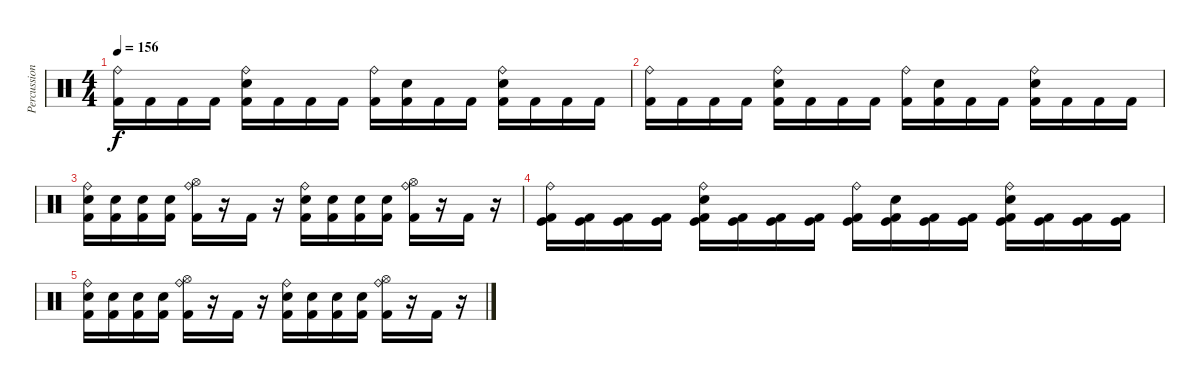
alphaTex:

\track ("Percussion" "Percussion") {instrument percussion}
\staff {score}
\articulation defaults
\ts (4 4)
\tempo 156
\clef neutral
\ks c
("Ride (bell)" "Kick (hit) 2").16{dy f} "Kick (hit) 2".16 "Kick (hit) 2".16 "Kick (hit) 2".16 ("Electric Snare (hit)" "Ride (bell)" "Kick (hit) 2").16 "Kick (hit) 2".16 "Kick (hit) 2".16 "Kick (hit) 2".16 ("Ride (bell)" "Kick (hit) 2").16 ("Electric Snare (hit)" "Kick (hit) 2").16 "Kick (hit) 2".16 "Kick (hit) 2".16 ("Electric Snare (hit)" "Ride (bell)" "Kick (hit) 2").16 "Kick (hit) 2".16 "Kick (hit) 2".16 "Kick (hit) 2".16 |
("Ride (bell)" "Kick (hit) 2").16 "Kick (hit) 2".16 "Kick (hit) 2".16 "Kick (hit) 2".16 ("Electric Snare (hit)" "Ride (bell)" "Kick (hit) 2").16 "Kick (hit) 2".16 "Kick (hit) 2".16 "Kick (hit) 2".16 ("Ride (bell)" "Kick (hit) 2").16 ("Electric Snare (hit)" "Kick (hit) 2").16 "Kick (hit) 2".16 "Kick (hit) 2".16 ("Electric Snare (hit)" "Ride (bell)" "Kick (hit) 2").16 "Kick (hit) 2".16 "Kick (hit) 2".16 "Kick (hit) 2".16 |
("Ride (bell)" "Electric Snare (hit)" "Kick (hit) 2").16 ("Electric Snare (hit)" "Kick (hit) 2").16 ("Electric Snare (hit)" "Kick (hit) 2").16 ("Electric Snare (hit)" "Kick (hit) 2").16 ("Ride (bell)" "Hi-Hat (open)" "Kick (hit) 2").16 r.16 "Kick (hit) 2".16 r.16 ("Ride (bell)" "Electric Snare (hit)" "Kick (hit) 2").16 ("Electric Snare (hit)" "Kick (hit) 2").16 ("Electric Snare (hit)" "Kick (hit) 2").16 ("Electric Snare (hit)" "Kick (hit) 2").16 ("Ride (bell)" "Hi-Hat (open)" "Kick (hit) 2").16 r.16 "Kick (hit) 2".16 r.16 |
("Ride (bell)" "Kick (hit) 2" "Kick (hit)").16 ("Kick (hit) 2" "Kick (hit)").16 ("Kick (hit) 2" "Kick (hit)").16 ("Kick (hit) 2" "Kick (hit)").16 ("Electric Snare (hit)" "Ride (bell)" "Kick (hit) 2" "Kick (hit)").16 ("Kick (hit) 2" "Kick (hit)").16 ("Kick (hit) 2" "Kick (hit)").16 ("Kick (hit) 2" "Kick (hit)").16 ("Ride (bell)" "Kick (hit) 2" "Kick (hit)").16 ("Electric Snare (hit)" "Kick (hit) 2" "Kick (hit)").16 ("Kick (hit) 2" "Kick (hit)").16 ("Kick (hit) 2" "Kick (hit)").16 ("Electric Snare (hit)" "Ride (bell)" "Kick (hit) 2" "Kick (hit)").16 ("Kick (hit) 2" "Kick (hit)").16 ("Kick (hit) 2" "Kick (hit)").16 ("Kick (hit) 2" "Kick (hit)").16 |
("Ride (bell)" "Electric Snare (hit)" "Kick (hit) 2").16 ("Electric Snare (hit)" "Kick (hit) 2").16 ("Electric Snare (hit)" "Kick (hit) 2").16 ("Electric Snare (hit)" "Kick (hit) 2").16 ("Ride (bell)" "Hi-Hat (open)" "Kick (hit) 2").16 r.16 "Kick (hit) 2".16 r.16 ("Ride (bell)" "Electric Snare (hit)" "Kick (hit) 2").16 ("Electric Snare (hit)" "Kick (hit) 2").16 ("Electric Snare (hit)" "Kick (hit) 2").16 ("Electric Snare (hit)" "Kick (hit) 2").16 ("Ride (bell)" "Hi-Hat (open)" "Kick (hit) 2").16 r.16 "Kick (hit) 2".16 r.16
